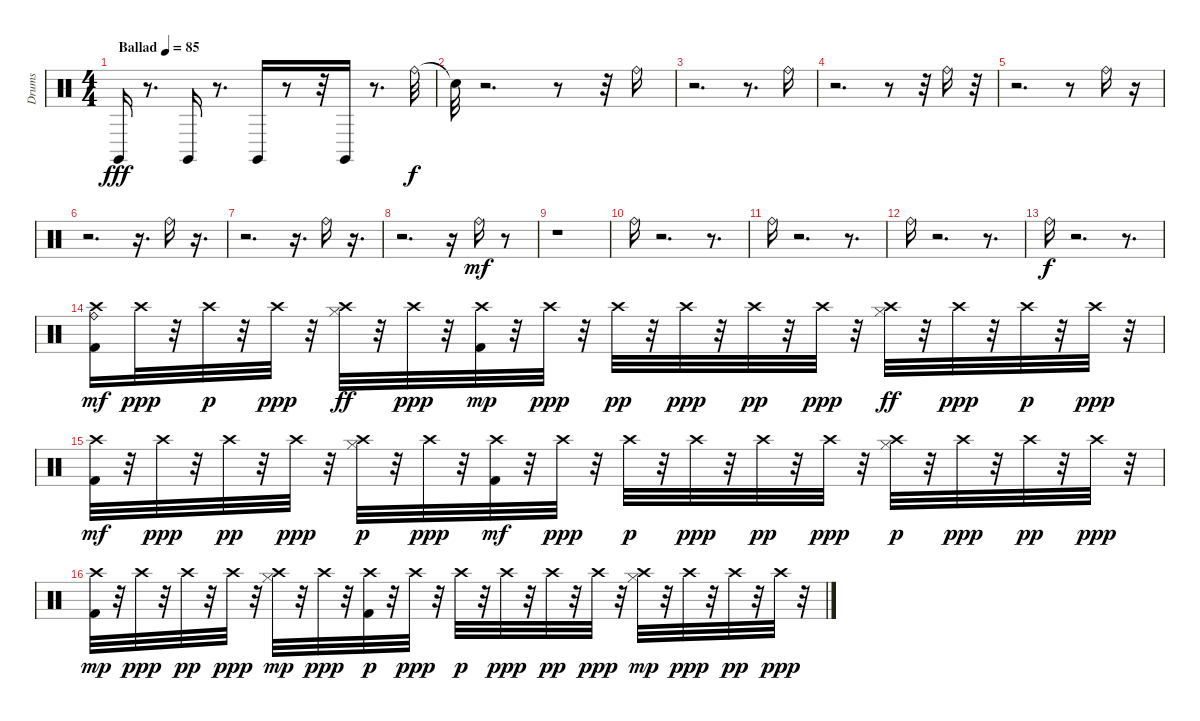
\track ("Drums" "Drums") {instrument percussion}
\staff {score}
\articulation defaults
\ts (4 4)
\tempo (85 "Ballad")
\clef neutral
\ks c "Claves (hit)".16{dy fff}
r.8{d} "Claves (hit)".16 r.8{d} "Claves (hit)".16 r.8 r.32 "Claves (hit)".16 r.8{d} "Ride (bell)".32{dy f} |
"Snare (hit)"{t}.32 r.2{d} r.8 r.32 "Ride (bell)".16 |
r.2{d} r.8{d} "Ride (bell)".16 |
r.2{d} r.8 r.32 "Ride (bell)".16 r.32 |
r.2{d} r.8 "Ride (bell)".16 r.16 |
r.2{d} r.16{d} "Ride (bell)".16 r.16{d} |
r.2{d} r.16{d} "Ride (bell)".16 r.16{d} |
r.2{d} r.16 "Ride (bell)".16{dy mf} r.8 |
r.1 |
"Ride (bell)".16 r.2{d} r.8{d} |
"Ride (bell)".16 r.2{d} r.8{d} |
"Ride (bell)".16 r.2{d} r.8{d} |
"Ride (bell)".16{dy f} r.2{d} r.8{d} |
("Crash high (hit)" "Ride (bell)" "Kick (hit) 2").16{dy mf} "Crash high (hit)".32{dy ppp} r.32 "Crash high (hit)".32{dy p} r.32 "Crash high (hit)".32{dy ppp} r.32 ("Crash high (hit)" "Hi-Hat (closed)").32{dy ff} r.32 "Crash high (hit)".32{dy ppp} r.32 ("Crash high (hit)" "Kick (hit) 2").32{dy mp} r.32 "Crash high (hit)".32{dy ppp} r.32 "Crash high (hit)".32{dy pp} r.32 "Crash high (hit)".32{dy ppp} r.32 "Crash high (hit)".32{dy pp} r.32 "Crash high (hit)".32{dy ppp} r.32 ("Crash high (hit)" "Hi-Hat (closed)").32{dy ff} r.32 "Crash high (hit)".32{dy ppp} r.32 "Crash high (hit)".32{dy p} r.32 "Crash high (hit)".32{dy ppp} r.32 |
("Crash high (hit)" "Kick (hit) 2").32{dy mf} r.32 "Crash high (hit)".32{dy ppp} r.32 "Crash high (hit)".32{dy pp} r.32 "Crash high (hit)".32{dy ppp} r.32 ("Hi-Hat (closed)" "Crash high (hit)").32{dy p} r.32 "Crash high (hit)".32{dy ppp} r.32 ("Crash high (hit)" "Kick (hit) 2").32{dy mf} r.32 "Crash high (hit)".32{dy ppp} r.32 "Crash high (hit)".32{dy p} r.32 "Crash high (hit)".32{dy ppp} r.32 "Crash high (hit)".32{dy pp} r.32 "Crash high (hit)".32{dy ppp} r.32 ("Hi-Hat (closed)" "Crash high (hit)").32{dy p} r.32 "Crash high (hit)".32{dy ppp} r.32 "Crash high (hit)".32{dy pp} r.32 "Crash high (hit)".32{dy ppp} r.32 |
("Kick (hit) 2" "Crash high (hit)").32{dy mp} r.32 "Crash high (hit)".32{dy ppp} r.32 "Crash high (hit)".32{dy pp} r.32 "Crash high (hit)".32{dy ppp} r.32 ("Hi-Hat (closed)" "Crash high (hit)").32{dy mp} r.32 "Crash high (hit)".32{dy ppp} r.32 ("Kick (hit) 2" "Crash high (hit)").32{dy p} r.32 "Crash high (hit)".32{dy ppp} r.32 "Crash high (hit)".32{dy p} r.32 "Crash high (hit)".32{dy ppp} r.32 "Crash high (hit)".32{dy pp} r.32 "Crash high (hit)".32{dy ppp} r.32 ("Hi-Hat (closed)" "Crash high (hit)").32{dy mp} r.32 "Crash high (hit)".32{dy ppp} r.32 "Crash high (hit)".32{dy pp} r.32 "Crash high (hit)".32{dy ppp} r.32
